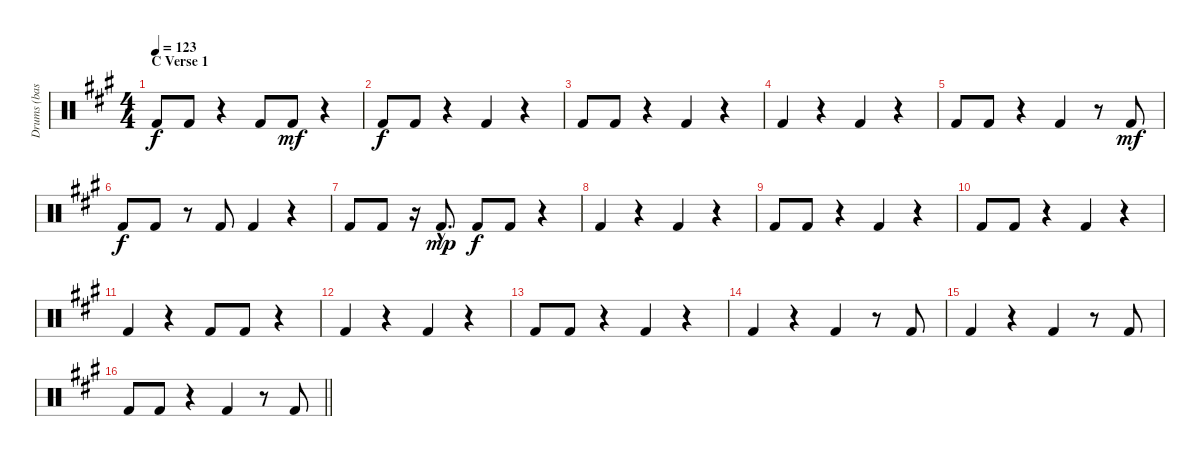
\track ("Drums (bass Drums)" "Drums (bas") {instrument percussion}
\staff {score}
\articulation defaults
\ts (4 4)
\section ("" "C Verse 1")
\tempo 123
\clef neutral
\ks a "Kick (hit) 2".8{dy f} "Kick (hit) 2".8
r.4 "Kick (hit) 2".8 "Kick (hit) 2".8{dy mf} r.4 |
"Kick (hit) 2".8{dy f} "Kick (hit) 2".8 r.4 "Kick (hit) 2".4 r.4 |
"Kick (hit) 2".8 "Kick (hit) 2".8 r.4 "Kick (hit) 2".4 r.4 |
"Kick (hit) 2".4 r.4 "Kick (hit) 2".4 r.4 |
"Kick (hit) 2".8 "Kick (hit) 2".8 r.4 "Kick (hit) 2".4 r.8 "Kick (hit) 2".8{dy mf} |
"Kick (hit) 2".8{dy f} "Kick (hit) 2".8 r.8 "Kick (hit) 2".8 "Kick (hit) 2".4 r.4 |
"Kick (hit) 2".8 "Kick (hit) 2".8 r.16 "Kick (hit) 2"{hac}.8{d dy mp} "Kick (hit) 2".8{dy f} "Kick (hit) 2".8 r.4 |
"Kick (hit) 2".4 r.4 "Kick (hit) 2".4 r.4 |
"Kick (hit) 2".8 "Kick (hit) 2".8 r.4 "Kick (hit) 2".4 r.4 |
"Kick (hit) 2".8 "Kick (hit) 2".8 r.4 "Kick (hit) 2".4 r.4 |
"Kick (hit) 2".4 r.4 "Kick (hit) 2".8 "Kick (hit) 2".8 r.4 |
"Kick (hit) 2".4 r.4 "Kick (hit) 2".4 r.4 |
"Kick (hit) 2".8 "Kick (hit) 2".8 r.4 "Kick (hit) 2".4 r.4 |
"Kick (hit) 2".4 r.4 "Kick (hit) 2".4 r.8 "Kick (hit) 2".8 |
"Kick (hit) 2".4 r.4 "Kick (hit) 2".4 r.8 "Kick (hit) 2".8 |
\barLineRight lightlight "Kick (hit) 2".8 "Kick (hit) 2".8
r.4 "Kick (hit) 2".4 r.8 "Kick (hit) 2".8
